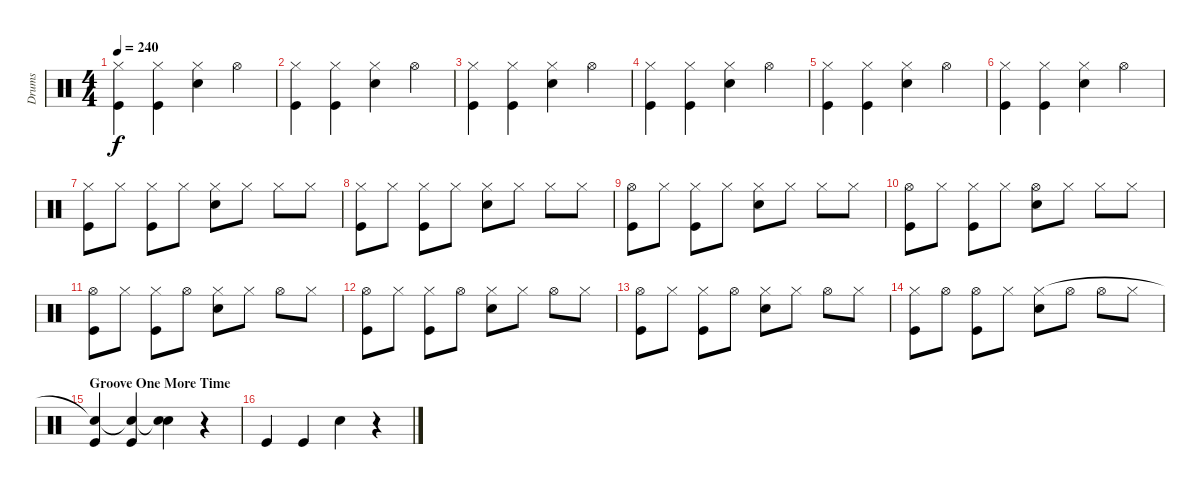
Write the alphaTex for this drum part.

\track ("Drums" "Drums") {instrument percussion}
\staff {score}
\articulation defaults
\ts (4 4)
\tempo 240
\clef neutral
\ks c
("Kick (hit)" "Hi-Hat (closed)").4{dy f} ("Kick (hit)" "Hi-Hat (closed)").4 ("Snare (hit) 2" "Hi-Hat (closed)").4 "Hi-Hat (open)".4 |
("Kick (hit)" "Hi-Hat (closed)").4 ("Kick (hit)" "Hi-Hat (closed)").4 ("Snare (hit) 2" "Hi-Hat (closed)").4 "Hi-Hat (open)".4 |
("Kick (hit)" "Hi-Hat (closed)").4 ("Kick (hit)" "Hi-Hat (closed)").4 ("Snare (hit) 2" "Hi-Hat (closed)").4 "Hi-Hat (open)".4 |
("Kick (hit)" "Hi-Hat (closed)").4 ("Kick (hit)" "Hi-Hat (closed)").4 ("Snare (hit) 2" "Hi-Hat (closed)").4 "Hi-Hat (open)".4 |
("Kick (hit)" "Hi-Hat (closed)").4 ("Kick (hit)" "Hi-Hat (closed)").4 ("Snare (hit) 2" "Hi-Hat (closed)").4 "Hi-Hat (open)".4 |
("Kick (hit)" "Hi-Hat (closed)").4 ("Kick (hit)" "Hi-Hat (closed)").4 ("Snare (hit) 2" "Hi-Hat (closed)").4 "Hi-Hat (open)".4 |
("Kick (hit)" "Hi-Hat (closed)").8 "Hi-Hat (closed)".8 ("Kick (hit)" "Hi-Hat (closed)").8 "Hi-Hat (closed)".8 ("Snare (hit) 2" "Hi-Hat (closed)").8 "Hi-Hat (closed)".8 "Hi-Hat (closed)".8 "Hi-Hat (closed)".8 |
("Kick (hit)" "Hi-Hat (closed)").8 "Hi-Hat (closed)".8 ("Kick (hit)" "Hi-Hat (closed)").8 "Hi-Hat (closed)".8 ("Snare (hit) 2" "Hi-Hat (closed)").8 "Hi-Hat (closed)".8 "Hi-Hat (closed)".8 "Hi-Hat (closed)".8 |
("Kick (hit)" "Hi-Hat (open)").8 "Hi-Hat (closed)".8 ("Kick (hit)" "Hi-Hat (closed)").8 "Hi-Hat (closed)".8 ("Snare (hit) 2" "Hi-Hat (closed)").8 "Hi-Hat (closed)".8 "Hi-Hat (closed)".8 "Hi-Hat (closed)".8 |
("Kick (hit)" "Hi-Hat (open)").8 "Hi-Hat (closed)".8 ("Kick (hit)" "Hi-Hat (closed)").8 "Hi-Hat (closed)".8 ("Snare (hit) 2" "Hi-Hat (open)").8 "Hi-Hat (closed)".8 "Hi-Hat (closed)".8 "Hi-Hat (closed)".8 |
("Kick (hit)" "Hi-Hat (open)").8 "Hi-Hat (closed)".8 ("Kick (hit)" "Hi-Hat (closed)").8 "Hi-Hat (open)".8 ("Snare (hit) 2" "Hi-Hat (closed)").8 "Hi-Hat (closed)".8 "Hi-Hat (open)".8 "Hi-Hat (closed)".8 |
("Kick (hit)" "Hi-Hat (open)").8 "Hi-Hat (closed)".8 ("Kick (hit)" "Hi-Hat (closed)").8 "Hi-Hat (open)".8 ("Snare (hit) 2" "Hi-Hat (closed)").8 "Hi-Hat (closed)".8 "Hi-Hat (open)".8 "Hi-Hat (closed)".8 |
("Kick (hit)" "Hi-Hat (open)").8 "Hi-Hat (closed)".8 ("Kick (hit)" "Hi-Hat (closed)").8 "Hi-Hat (open)".8 ("Snare (hit) 2" "Hi-Hat (closed)").8 "Hi-Hat (closed)".8 "Hi-Hat (open)".8 "Hi-Hat (closed)".8 |
("Kick (hit)" "Hi-Hat (closed)").8 "Hi-Hat (open)".8 ("Kick (hit)" "Hi-Hat (open)").8 "Hi-Hat (closed)".8 ("Snare (hit) 2" "Hi-Hat (closed)").8 "Hi-Hat (open)".8 "Hi-Hat (open)".8 "Hi-Hat (closed)".8 |
\section ("" "Groove One More Time")
("Kick (hit)" "Snare (hit)"{t}).4 ("Kick (hit)" "Snare (hit)"{t}).4 ("Snare (hit) 2" "Snare (hit)"{t}).4 r.4 |
"Kick (hit)".4 "Kick (hit)".4 "Snare (hit) 2".4 r.4
